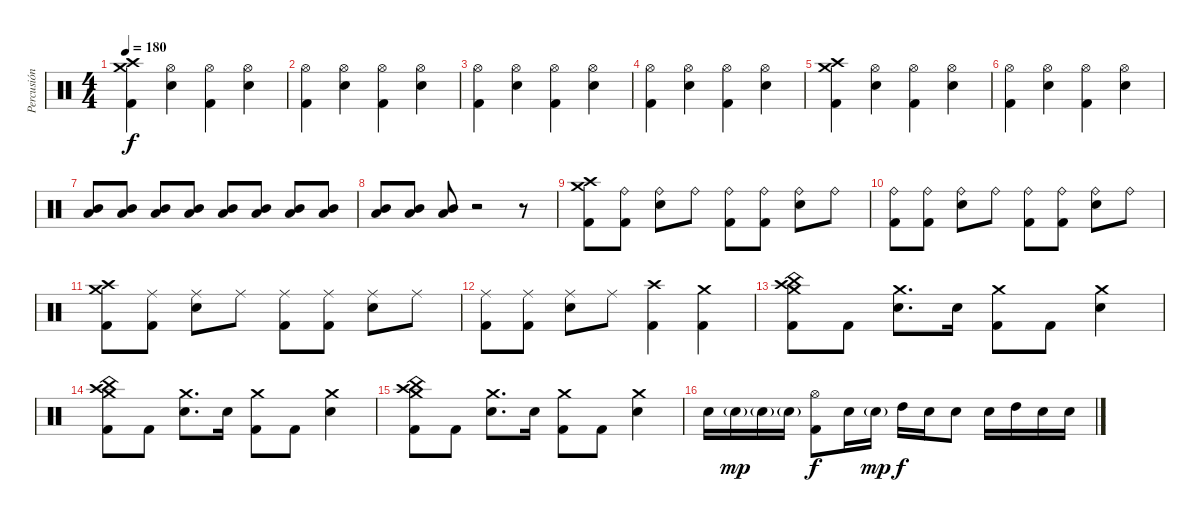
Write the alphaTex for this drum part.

\track ("Percusión" "Percusión") {instrument percussion}
\staff {score}
\articulation defaults
\ts (4 4)
\tempo 180
\clef neutral
\ks c
("Crash high (hit)" "Crash medium (hit)" "Kick (hit) 2").4{dy f} ("Hi-Hat (open)" "Electric Snare (hit)").4 ("Hi-Hat (open)" "Kick (hit) 2").4 ("Hi-Hat (open)" "Electric Snare (hit)").4 |
("Hi-Hat (open)" "Kick (hit) 2").4 ("Hi-Hat (open)" "Electric Snare (hit)").4 ("Hi-Hat (open)" "Kick (hit) 2").4 ("Hi-Hat (open)" "Electric Snare (hit)").4 |
("Hi-Hat (open)" "Kick (hit) 2").4 ("Hi-Hat (open)" "Electric Snare (hit)").4 ("Hi-Hat (open)" "Kick (hit) 2").4 ("Hi-Hat (open)" "Electric Snare (hit)").4 |
("Hi-Hat (open)" "Kick (hit) 2").4 ("Hi-Hat (open)" "Electric Snare (hit)").4 ("Hi-Hat (open)" "Kick (hit) 2").4 ("Hi-Hat (open)" "Electric Snare (hit)").4 |
("Crash high (hit)" "Crash medium (hit)" "Kick (hit) 2").4 ("Hi-Hat (open)" "Electric Snare (hit)").4 ("Hi-Hat (open)" "Kick (hit) 2").4 ("Hi-Hat (open)" "Electric Snare (hit)").4 |
("Hi-Hat (open)" "Kick (hit) 2").4 ("Hi-Hat (open)" "Electric Snare (hit)").4 ("Hi-Hat (open)" "Kick (hit) 2").4 ("Hi-Hat (open)" "Electric Snare (hit)").4 |
("Mid Tom (hit)" "Low Floor Tom (hit)").8 ("Mid Tom (hit)" "Low Floor Tom (hit)").8 ("Mid Tom (hit)" "Low Floor Tom (hit)").8 ("Mid Tom (hit)" "Low Floor Tom (hit)").8 ("Mid Tom (hit)" "Low Floor Tom (hit)").8 ("Mid Tom (hit)" "Low Floor Tom (hit)").8 ("Mid Tom (hit)" "Low Floor Tom (hit)").8 ("Mid Tom (hit)" "Low Floor Tom (hit)").8 |
("Mid Tom (hit)" "Low Floor Tom (hit)").8 ("Mid Tom (hit)" "Low Floor Tom (hit)").8 ("Mid Tom (hit)" "Low Floor Tom (hit)").8 r.2 r.8 |
("Crash medium (hit)" "Crash high (hit)" "Kick (hit) 2").8 ("Ride (bell)" "Kick (hit) 2").8 ("Ride (bell)" "Electric Snare (hit)").8 "Ride (bell)".8 ("Ride (bell)" "Kick (hit) 2").8 ("Ride (bell)" "Kick (hit) 2").8 ("Ride (bell)" "Electric Snare (hit)").8 "Ride (bell)".8 |
("Ride (bell)" "Kick (hit) 2").8 ("Ride (bell)" "Kick (hit) 2").8 ("Ride (bell)" "Electric Snare (hit)").8 "Ride (bell)".8 ("Ride (bell)" "Kick (hit) 2").8 ("Ride (bell)" "Kick (hit) 2").8 ("Ride (bell)" "Electric Snare (hit)").8 "Ride (bell)".8 |
("Crash medium (hit)" "Crash high (hit)" "Kick (hit) 2").8 ("Ride (middle)" "Kick (hit) 2").8 ("Ride (middle)" "Electric Snare (hit)").8 "Ride (middle)".8 ("Ride (middle)" "Kick (hit) 2").8 ("Ride (middle)" "Kick (hit) 2").8 ("Ride (middle)" "Electric Snare (hit)").8 "Ride (middle)".8 |
("Ride (middle)" "Kick (hit) 2").8 ("Ride (middle)" "Kick (hit) 2").8 ("Ride (middle)" "Electric Snare (hit)").8 "Ride (middle)".8 ("Crash high (hit)" "Kick (hit) 2").4 ("Crash medium (hit)" "Kick (hit) 2").4 |
("Crash high (hit)" "Crash medium (hit)" "China (hit)" "Kick (hit) 2").8 "Kick (hit) 2".8 ("Crash medium (hit)" "Electric Snare (hit)").8{d} "Electric Snare (hit)".16 ("Crash medium (hit)" "Kick (hit) 2").8 "Kick (hit) 2".8 ("Crash medium (hit)" "Electric Snare (hit)").4 |
("Crash high (hit)" "Crash medium (hit)" "China (hit)" "Kick (hit) 2").8 "Kick (hit) 2".8 ("Crash medium (hit)" "Electric Snare (hit)").8{d} "Electric Snare (hit)".16 ("Crash medium (hit)" "Kick (hit) 2").8 "Kick (hit) 2".8 ("Crash medium (hit)" "Electric Snare (hit)").4 |
("Crash high (hit)" "Crash medium (hit)" "China (hit)" "Kick (hit) 2").8 "Kick (hit) 2".8 ("Crash medium (hit)" "Electric Snare (hit)").8{d} "Electric Snare (hit)".16 ("Crash medium (hit)" "Kick (hit) 2").8 "Kick (hit) 2".8 ("Crash medium (hit)" "Electric Snare (hit)").4 |
"Electric Snare (hit)".16 "Electric Snare (hit)"{g}.16{dy mp} "Electric Snare (hit)"{g}.16 "Electric Snare (hit)"{g}.16 ("Hi-Hat (open)" "Kick (hit) 2").8{dy f} "Electric Snare (hit)".16 "Electric Snare (hit)"{g}.16{dy mp} "High Tom (hit)".16{dy f} "Electric Snare (hit)".16 "Electric Snare (hit)".8 "Electric Snare (hit)".16 "High Tom (hit)".16 "Electric Snare (hit)".16 "Electric Snare (hit)".16
